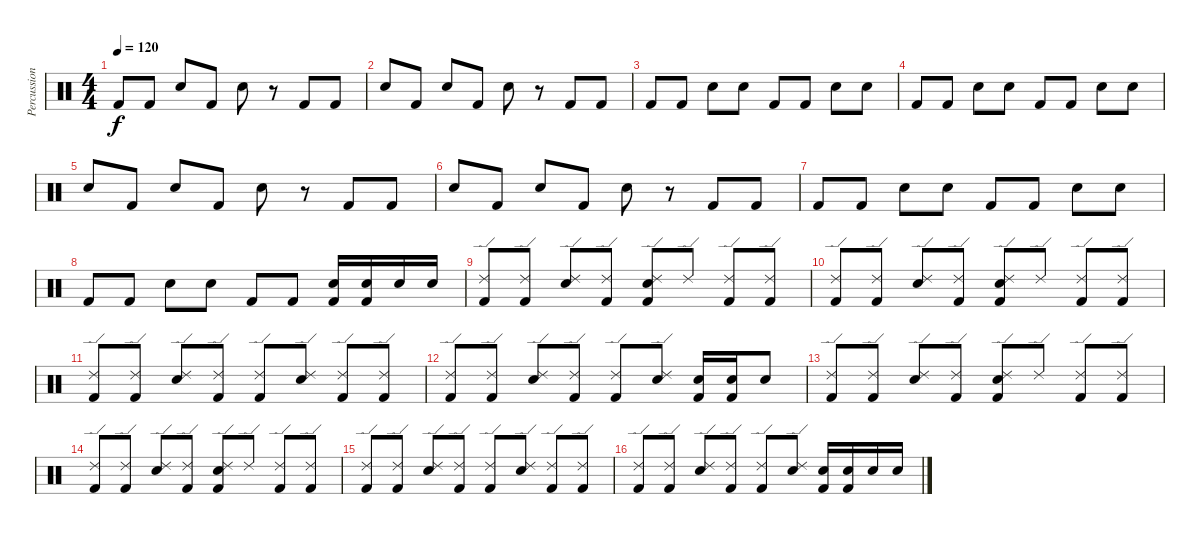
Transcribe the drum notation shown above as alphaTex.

\track ("Percussion" "Percussion") {instrument percussion}
\staff {score}
\articulation defaults
\ts (4 4)
\tempo 120
\clef neutral
\ks c "Kick (hit) 2".8{dy f} "Kick (hit) 2".8 "Snare (hit) 2".8 "Kick (hit) 2".8 "Snare (hit) 2".8
r.8 "Kick (hit) 2".8 "Kick (hit) 2".8 |
"Snare (hit) 2".8 "Kick (hit) 2".8 "Snare (hit) 2".8 "Kick (hit) 2".8 "Snare (hit) 2".8 r.8 "Kick (hit) 2".8 "Kick (hit) 2".8 |
"Kick (hit) 2".8 "Kick (hit) 2".8 "Snare (hit) 2".8 "Snare (hit) 2".8 "Kick (hit) 2".8 "Kick (hit) 2".8 "Snare (hit) 2".8 "Snare (hit) 2".8 |
"Kick (hit) 2".8 "Kick (hit) 2".8 "Snare (hit) 2".8 "Snare (hit) 2".8 "Kick (hit) 2".8 "Kick (hit) 2".8 "Snare (hit) 2".8 "Snare (hit) 2".8 |
"Snare (hit) 2".8 "Kick (hit) 2".8 "Snare (hit) 2".8 "Kick (hit) 2".8 "Snare (hit) 2".8 r.8 "Kick (hit) 2".8 "Kick (hit) 2".8 |
"Snare (hit) 2".8 "Kick (hit) 2".8 "Snare (hit) 2".8 "Kick (hit) 2".8 "Snare (hit) 2".8 r.8 "Kick (hit) 2".8 "Kick (hit) 2".8 |
"Kick (hit) 2".8 "Kick (hit) 2".8 "Snare (hit) 2".8 "Snare (hit) 2".8 "Kick (hit) 2".8 "Kick (hit) 2".8 "Snare (hit) 2".8 "Snare (hit) 2".8 |
"Kick (hit) 2".8 "Kick (hit) 2".8 "Snare (hit) 2".8 "Snare (hit) 2".8 "Kick (hit) 2".8 "Kick (hit) 2".8 ("Kick (hit) 2" "Snare (hit) 2").16 ("Kick (hit) 2" "Snare (hit) 2").16 "Snare (hit) 2".16 "Snare (hit) 2".16 |
("Kick (hit) 2" "Ride (edge) 2").8 ("Kick (hit) 2" "Ride (edge) 2").8 ("Snare (hit) 2" "Ride (edge) 2").8 ("Kick (hit) 2" "Ride (edge) 2").8 ("Kick (hit) 2" "Snare (hit) 2" "Ride (edge) 2").8 "Ride (edge) 2".8 ("Kick (hit) 2" "Ride (edge) 2").8 ("Kick (hit) 2" "Ride (edge) 2").8 |
("Kick (hit) 2" "Ride (edge) 2").8 ("Kick (hit) 2" "Ride (edge) 2").8 ("Snare (hit) 2" "Ride (edge) 2").8 ("Kick (hit) 2" "Ride (edge) 2").8 ("Kick (hit) 2" "Snare (hit) 2" "Ride (edge) 2").8 "Ride (edge) 2".8 ("Kick (hit) 2" "Ride (edge) 2").8 ("Kick (hit) 2" "Ride (edge) 2").8 |
("Kick (hit) 2" "Ride (edge) 2").8 ("Kick (hit) 2" "Ride (edge) 2").8 ("Snare (hit) 2" "Ride (edge) 2").8 ("Kick (hit) 2" "Ride (edge) 2").8 ("Kick (hit) 2" "Ride (edge) 2").8 ("Snare (hit) 2" "Ride (edge) 2").8 ("Kick (hit) 2" "Ride (edge) 2").8 ("Kick (hit) 2" "Ride (edge) 2").8 |
("Kick (hit) 2" "Ride (edge) 2").8 ("Kick (hit) 2" "Ride (edge) 2").8 ("Snare (hit) 2" "Ride (edge) 2").8 ("Kick (hit) 2" "Ride (edge) 2").8 ("Kick (hit) 2" "Ride (edge) 2").8 ("Snare (hit) 2" "Ride (edge) 2").8 ("Kick (hit) 2" "Snare (hit) 2").16 ("Kick (hit) 2" "Snare (hit) 2").16 "Snare (hit) 2".8 |
("Kick (hit) 2" "Ride (edge) 2").8 ("Kick (hit) 2" "Ride (edge) 2").8 ("Snare (hit) 2" "Ride (edge) 2").8 ("Kick (hit) 2" "Ride (edge) 2").8 ("Kick (hit) 2" "Snare (hit) 2" "Ride (edge) 2").8 "Ride (edge) 2".8 ("Kick (hit) 2" "Ride (edge) 2").8 ("Kick (hit) 2" "Ride (edge) 2").8 |
("Kick (hit) 2" "Ride (edge) 2").8 ("Kick (hit) 2" "Ride (edge) 2").8 ("Snare (hit) 2" "Ride (edge) 2").8 ("Kick (hit) 2" "Ride (edge) 2").8 ("Kick (hit) 2" "Snare (hit) 2" "Ride (edge) 2").8 "Ride (edge) 2".8 ("Kick (hit) 2" "Ride (edge) 2").8 ("Kick (hit) 2" "Ride (edge) 2").8 |
("Kick (hit) 2" "Ride (edge) 2").8 ("Kick (hit) 2" "Ride (edge) 2").8 ("Snare (hit) 2" "Ride (edge) 2").8 ("Kick (hit) 2" "Ride (edge) 2").8 ("Kick (hit) 2" "Ride (edge) 2").8 ("Snare (hit) 2" "Ride (edge) 2").8 ("Kick (hit) 2" "Ride (edge) 2").8 ("Kick (hit) 2" "Ride (edge) 2").8 |
("Kick (hit) 2" "Ride (edge) 2").8 ("Kick (hit) 2" "Ride (edge) 2").8 ("Snare (hit) 2" "Ride (edge) 2").8 ("Kick (hit) 2" "Ride (edge) 2").8 ("Kick (hit) 2" "Ride (edge) 2").8 ("Snare (hit) 2" "Ride (edge) 2").8 ("Kick (hit) 2" "Snare (hit) 2").16 ("Kick (hit) 2" "Snare (hit) 2").16 "Snare (hit) 2".16 "Snare (hit) 2".16
